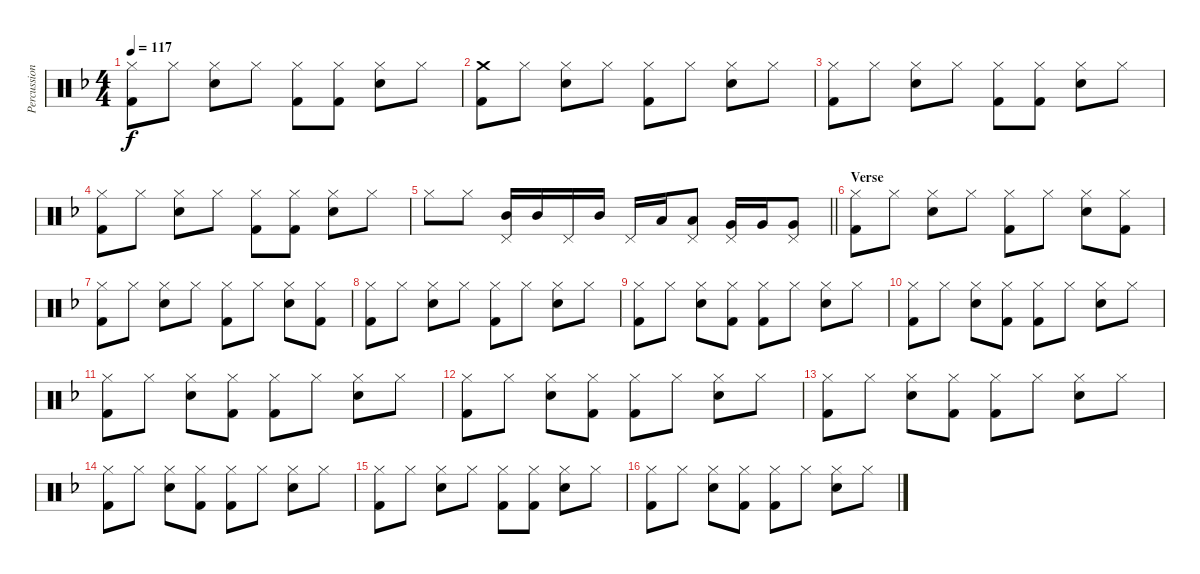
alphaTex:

\track ("Percussion" "Percussion") {instrument percussion}
\staff {score}
\articulation defaults
\ts (4 4)
\tempo 117
\clef neutral
\ks f
("Hi-Hat (closed)" "Kick (hit) 2").8{dy f} "Hi-Hat (closed)".8 ("Hi-Hat (closed)" "Electric Snare (hit)").8 "Hi-Hat (closed)".8 ("Hi-Hat (closed)" "Kick (hit) 2").8 ("Hi-Hat (closed)" "Kick (hit) 2").8 ("Hi-Hat (closed)" "Electric Snare (hit)").8 "Hi-Hat (closed)".8 |
("Crash medium (hit)" "Kick (hit) 2").8 "Hi-Hat (closed)".8 ("Hi-Hat (closed)" "Electric Snare (hit)").8 "Hi-Hat (closed)".8 ("Hi-Hat (closed)" "Kick (hit) 2").8 "Hi-Hat (closed)".8 ("Hi-Hat (closed)" "Electric Snare (hit)").8 "Hi-Hat (closed)".8 |
("Hi-Hat (closed)" "Kick (hit) 2").8 "Hi-Hat (closed)".8 ("Hi-Hat (closed)" "Electric Snare (hit)").8 "Hi-Hat (closed)".8 ("Hi-Hat (closed)" "Kick (hit) 2").8 ("Hi-Hat (closed)" "Kick (hit) 2").8 ("Hi-Hat (closed)" "Electric Snare (hit)").8 "Hi-Hat (closed)".8 |
("Hi-Hat (closed)" "Kick (hit) 2").8 "Hi-Hat (closed)".8 ("Hi-Hat (closed)" "Electric Snare (hit)").8 "Hi-Hat (closed)".8 ("Hi-Hat (closed)" "Kick (hit) 2").8 ("Hi-Hat (closed)" "Kick (hit) 2").8 ("Hi-Hat (closed)" "Electric Snare (hit)").8 "Hi-Hat (closed)".8 |
\barLineRight lightlight "Hi-Hat (closed)".8 "Hi-Hat (closed)".8
("Pedal Hi-Hat (hit)" "Mid Tom (hit)").16 "Mid Tom (hit)".16 "Pedal Hi-Hat (hit)".16 "Mid Tom (hit)".16 "Pedal Hi-Hat (hit)".16 "Low Tom (hit)".16 ("Pedal Hi-Hat (hit)" "Low Tom (hit)").8 ("Pedal Hi-Hat (hit)" "Very Low Tom (hit)").16 "Very Low Tom (hit)".16 ("Pedal Hi-Hat (hit)" "Very Low Tom (hit)").8 |
\section ("" "Verse")
("Hi-Hat (closed)" "Kick (hit) 2").8 "Hi-Hat (closed)".8 ("Hi-Hat (closed)" "Electric Snare (hit)").8 "Hi-Hat (closed)".8 ("Hi-Hat (closed)" "Kick (hit) 2").8 "Hi-Hat (closed)".8 ("Hi-Hat (closed)" "Electric Snare (hit)").8 ("Hi-Hat (closed)" "Kick (hit) 2").8 |
("Hi-Hat (closed)" "Kick (hit) 2").8 "Hi-Hat (closed)".8 ("Hi-Hat (closed)" "Electric Snare (hit)").8 "Hi-Hat (closed)".8 ("Hi-Hat (closed)" "Kick (hit) 2").8 "Hi-Hat (closed)".8 ("Hi-Hat (closed)" "Electric Snare (hit)").8 ("Hi-Hat (closed)" "Kick (hit) 2").8 |
("Hi-Hat (closed)" "Kick (hit) 2").8 "Hi-Hat (closed)".8 ("Hi-Hat (closed)" "Electric Snare (hit)").8 "Hi-Hat (closed)".8 ("Hi-Hat (closed)" "Kick (hit) 2").8 "Hi-Hat (closed)".8 ("Hi-Hat (closed)" "Electric Snare (hit)").8 "Hi-Hat (closed)".8 |
("Hi-Hat (closed)" "Kick (hit) 2").8 "Hi-Hat (closed)".8 ("Hi-Hat (closed)" "Electric Snare (hit)").8 ("Hi-Hat (closed)" "Kick (hit) 2").8 ("Hi-Hat (closed)" "Kick (hit) 2").8 "Hi-Hat (closed)".8 ("Hi-Hat (closed)" "Electric Snare (hit)").8 "Hi-Hat (closed)".8 |
("Hi-Hat (closed)" "Kick (hit) 2").8 "Hi-Hat (closed)".8 ("Hi-Hat (closed)" "Electric Snare (hit)").8 ("Hi-Hat (closed)" "Kick (hit) 2").8 ("Hi-Hat (closed)" "Kick (hit) 2").8 "Hi-Hat (closed)".8 ("Hi-Hat (closed)" "Electric Snare (hit)").8 "Hi-Hat (closed)".8 |
("Hi-Hat (closed)" "Kick (hit) 2").8 "Hi-Hat (closed)".8 ("Hi-Hat (closed)" "Electric Snare (hit)").8 ("Hi-Hat (closed)" "Kick (hit) 2").8 ("Hi-Hat (closed)" "Kick (hit) 2").8 "Hi-Hat (closed)".8 ("Hi-Hat (closed)" "Electric Snare (hit)").8 "Hi-Hat (closed)".8 |
("Hi-Hat (closed)" "Kick (hit) 2").8 "Hi-Hat (closed)".8 ("Hi-Hat (closed)" "Electric Snare (hit)").8 ("Hi-Hat (closed)" "Kick (hit) 2").8 ("Hi-Hat (closed)" "Kick (hit) 2").8 "Hi-Hat (closed)".8 ("Hi-Hat (closed)" "Electric Snare (hit)").8 "Hi-Hat (closed)".8 |
("Hi-Hat (closed)" "Kick (hit) 2").8 "Hi-Hat (closed)".8 ("Hi-Hat (closed)" "Electric Snare (hit)").8 ("Hi-Hat (closed)" "Kick (hit) 2").8 ("Hi-Hat (closed)" "Kick (hit) 2").8 "Hi-Hat (closed)".8 ("Hi-Hat (closed)" "Electric Snare (hit)").8 "Hi-Hat (closed)".8 |
("Hi-Hat (closed)" "Kick (hit) 2").8 "Hi-Hat (closed)".8 ("Hi-Hat (closed)" "Electric Snare (hit)").8 ("Hi-Hat (closed)" "Kick (hit) 2").8 ("Hi-Hat (closed)" "Kick (hit) 2").8 "Hi-Hat (closed)".8 ("Hi-Hat (closed)" "Electric Snare (hit)").8 "Hi-Hat (closed)".8 |
("Hi-Hat (closed)" "Kick (hit) 2").8 "Hi-Hat (closed)".8 ("Hi-Hat (closed)" "Electric Snare (hit)").8 "Hi-Hat (closed)".8 ("Hi-Hat (closed)" "Kick (hit) 2").8 ("Hi-Hat (closed)" "Kick (hit) 2").8 ("Hi-Hat (closed)" "Electric Snare (hit)").8 "Hi-Hat (closed)".8 |
("Hi-Hat (closed)" "Kick (hit) 2").8 "Hi-Hat (closed)".8 ("Hi-Hat (closed)" "Electric Snare (hit)").8 ("Hi-Hat (closed)" "Kick (hit) 2").8 ("Hi-Hat (closed)" "Kick (hit) 2").8 "Hi-Hat (closed)".8 ("Hi-Hat (closed)" "Electric Snare (hit)").8 "Hi-Hat (closed)".8
